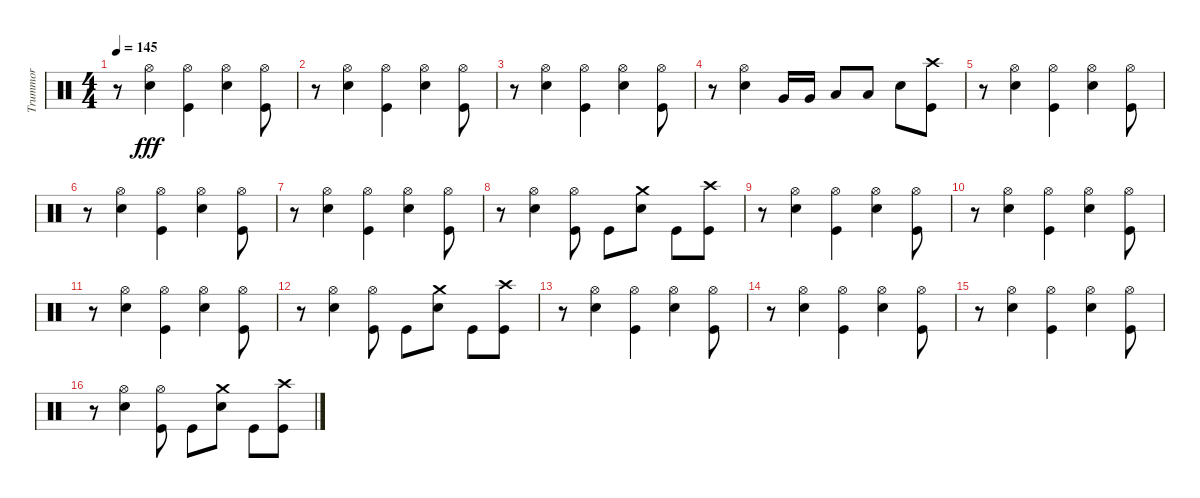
\track ("Trummor" "Trummor") {instrument percussion}
\staff {score}
\articulation defaults
\ts (4 4)
\tempo 145
\clef neutral
\ks c
r.8{dy fff} ("Hi-Hat (open)" "Snare (hit) 2").4 ("Hi-Hat (open)" "Kick (hit)").4 ("Hi-Hat (open)" "Snare (hit) 2").4 ("Hi-Hat (open)" "Kick (hit)").8 |
r.8 ("Hi-Hat (open)" "Snare (hit) 2").4 ("Hi-Hat (open)" "Kick (hit)").4 ("Hi-Hat (open)" "Snare (hit) 2").4 ("Hi-Hat (open)" "Kick (hit)").8 |
r.8 ("Hi-Hat (open)" "Snare (hit) 2").4 ("Hi-Hat (open)" "Kick (hit)").4 ("Hi-Hat (open)" "Snare (hit) 2").4 ("Hi-Hat (open)" "Kick (hit)").8 |
r.8 ("Hi-Hat (open)" "Snare (hit) 2").4 "Very Low Tom (hit)".16 "Very Low Tom (hit)".16 "Low Floor Tom (hit)".8 "Low Floor Tom (hit)".8 "Snare (hit) 2".8 ("Crash high (hit)" "Kick (hit)").8 |
r.8 ("Hi-Hat (open)" "Snare (hit) 2").4 ("Hi-Hat (open)" "Kick (hit)").4 ("Hi-Hat (open)" "Snare (hit) 2").4 ("Hi-Hat (open)" "Kick (hit)").8 |
r.8 ("Hi-Hat (open)" "Snare (hit) 2").4 ("Hi-Hat (open)" "Kick (hit)").4 ("Hi-Hat (open)" "Snare (hit) 2").4 ("Hi-Hat (open)" "Kick (hit)").8 |
r.8 ("Hi-Hat (open)" "Snare (hit) 2").4 ("Hi-Hat (open)" "Kick (hit)").4 ("Hi-Hat (open)" "Snare (hit) 2").4 ("Hi-Hat (open)" "Kick (hit)").8 |
r.8 ("Hi-Hat (open)" "Snare (hit) 2").4 ("Hi-Hat (open)" "Kick (hit)").8 "Kick (hit)".8 ("Crash medium (hit)" "Snare (hit) 2").8 "Kick (hit)".8 ("Crash high (hit)" "Kick (hit)").8 |
r.8 ("Hi-Hat (open)" "Snare (hit) 2").4 ("Hi-Hat (open)" "Kick (hit)").4 ("Hi-Hat (open)" "Snare (hit) 2").4 ("Hi-Hat (open)" "Kick (hit)").8 |
r.8 ("Hi-Hat (open)" "Snare (hit) 2").4 ("Hi-Hat (open)" "Kick (hit)").4 ("Hi-Hat (open)" "Snare (hit) 2").4 ("Hi-Hat (open)" "Kick (hit)").8 |
r.8 ("Hi-Hat (open)" "Snare (hit) 2").4 ("Hi-Hat (open)" "Kick (hit)").4 ("Hi-Hat (open)" "Snare (hit) 2").4 ("Hi-Hat (open)" "Kick (hit)").8 |
r.8 ("Hi-Hat (open)" "Snare (hit) 2").4 ("Hi-Hat (open)" "Kick (hit)").8 "Kick (hit)".8 ("Crash medium (hit)" "Snare (hit) 2").8 "Kick (hit)".8 ("Crash high (hit)" "Kick (hit)").8 |
r.8 ("Hi-Hat (open)" "Snare (hit) 2").4 ("Hi-Hat (open)" "Kick (hit)").4 ("Hi-Hat (open)" "Snare (hit) 2").4 ("Hi-Hat (open)" "Kick (hit)").8 |
r.8 ("Hi-Hat (open)" "Snare (hit) 2").4 ("Hi-Hat (open)" "Kick (hit)").4 ("Hi-Hat (open)" "Snare (hit) 2").4 ("Hi-Hat (open)" "Kick (hit)").8 |
r.8 ("Hi-Hat (open)" "Snare (hit) 2").4 ("Hi-Hat (open)" "Kick (hit)").4 ("Hi-Hat (open)" "Snare (hit) 2").4 ("Hi-Hat (open)" "Kick (hit)").8 |
r.8 ("Hi-Hat (open)" "Snare (hit) 2").4 ("Hi-Hat (open)" "Kick (hit)").8 "Kick (hit)".8 ("Crash medium (hit)" "Snare (hit) 2").8 "Kick (hit)".8 ("Crash high (hit)" "Kick (hit)").8
